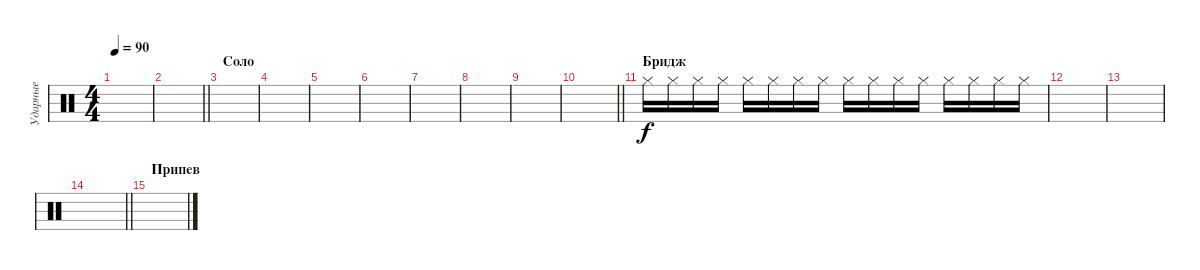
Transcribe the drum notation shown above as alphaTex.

\track ("Ударные" "Ударные") {instrument percussion}
\staff {score}
\articulation defaults
\ts (4 4)
\tempo 90
\clef neutral
\ks c
|
\barLineRight lightlight
|
\section ("" "Соло")
|
|
|
|
|
|
|
\barLineRight lightlight
|
\section ("" "Бридж")
"Hi-Hat (closed)".16 "Hi-Hat (closed)".16 "Hi-Hat (closed)".16 "Hi-Hat (closed)".16 "Hi-Hat (closed)".16 "Hi-Hat (closed)".16 "Hi-Hat (closed)".16 "Hi-Hat (closed)".16 "Hi-Hat (closed)".16 "Hi-Hat (closed)".16 "Hi-Hat (closed)".16 "Hi-Hat (closed)".16 "Hi-Hat (closed)".16 "Hi-Hat (closed)".16 "Hi-Hat (closed)".16 "Hi-Hat (closed)".16 |
|
|
\barLineRight lightlight
|
\section ("" "Припев")
